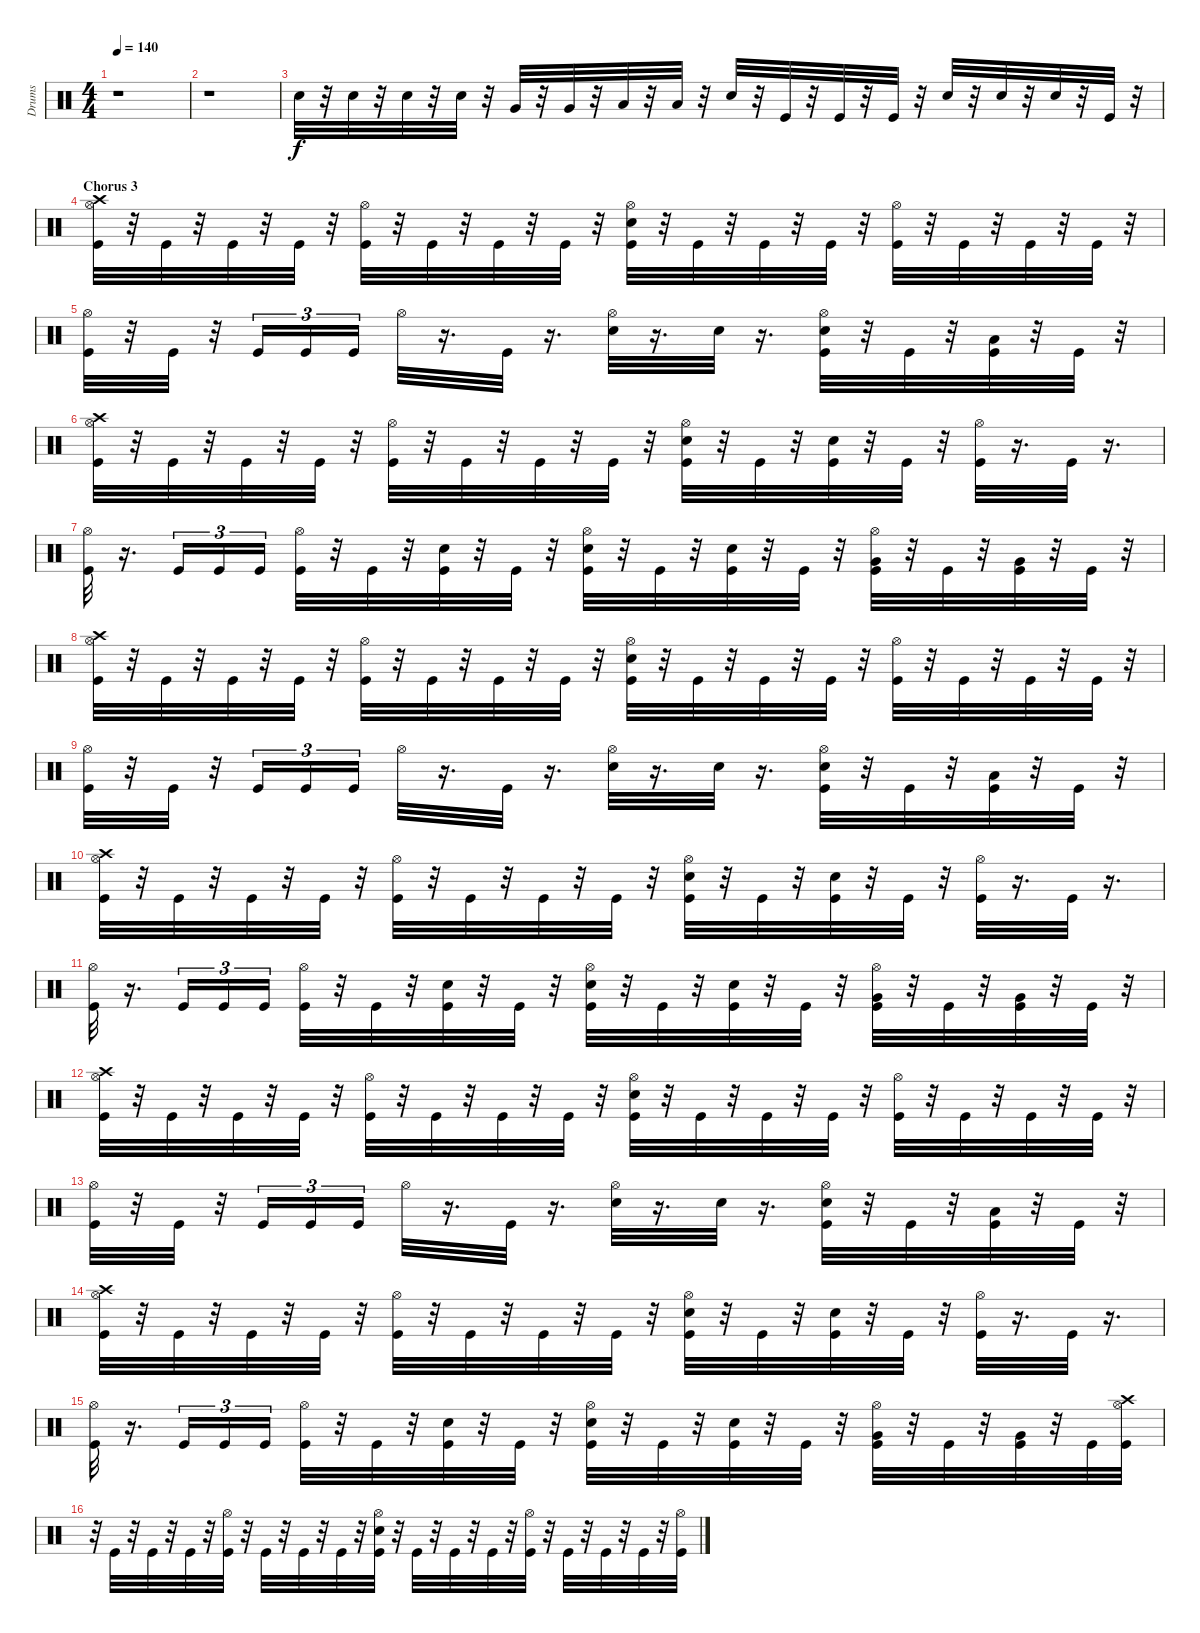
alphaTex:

\track ("Drums" "Drums") {instrument percussion}
\staff {score}
\articulation defaults
\ts (4 4)
\tempo 140
\clef neutral
\ks c
r.1{dy f} |
r.1 |
"Electric Snare (hit)".32 r.32 "Electric Snare (hit)".32 r.32 "Electric Snare (hit)".32 r.32 "Electric Snare (hit)".32 r.32 "Very Low Tom (hit)".32 r.32 "Very Low Tom (hit)".32 r.32 "Low Floor Tom (hit)".32 r.32 "Low Floor Tom (hit)".32 r.32 "Electric Snare (hit)".32 r.32 "Kick (hit)".32 r.32 "Kick (hit)".32 r.32 "Kick (hit)".32 r.32 "Electric Snare (hit)".32 r.32 "Electric Snare (hit)".32 r.32 "Electric Snare (hit)".32 r.32 "Kick (hit)".32 r.32 |
\section ("" "Chorus 3")
("Hi-Hat (open)" "Crash high (hit)" "Kick (hit)").32 r.32 "Kick (hit)".32 r.32 "Kick (hit)".32 r.32 "Kick (hit)".32 r.32 ("Hi-Hat (open)" "Kick (hit)").32 r.32 "Kick (hit)".32 r.32 "Kick (hit)".32 r.32 "Kick (hit)".32 r.32 ("Kick (hit)" "Hi-Hat (open)" "Electric Snare (hit)").32 r.32 "Kick (hit)".32 r.32 "Kick (hit)".32 r.32 "Kick (hit)".32 r.32 ("Kick (hit)" "Hi-Hat (open)").32 r.32 "Kick (hit)".32 r.32 "Kick (hit)".32 r.32 "Kick (hit)".32 r.32 |
("Hi-Hat (open)" "Kick (hit)").32 r.32 "Kick (hit)".32 r.32 "Kick (hit)".16{tu (3 2)} "Kick (hit)".16{tu (3 2)} "Kick (hit)".16{tu (3 2)} "Hi-Hat (open)".32 r.16{d} "Kick (hit)".32 r.16{d} ("Hi-Hat (open)" "Electric Snare (hit)").32 r.16{d} "Electric Snare (hit)".32 r.16{d} ("Electric Snare (hit)" "Hi-Hat (open)" "Kick (hit)").32 r.32 "Kick (hit)".32 r.32 ("Low Floor Tom (hit)" "Kick (hit)").32 r.32 "Kick (hit)".32 r.32 |
("Crash high (hit)" "Hi-Hat (open)" "Kick (hit)").32 r.32 "Kick (hit)".32 r.32 "Kick (hit)".32 r.32 "Kick (hit)".32 r.32 ("Kick (hit)" "Hi-Hat (open)").32 r.32 "Kick (hit)".32 r.32 "Kick (hit)".32 r.32 "Kick (hit)".32 r.32 ("Kick (hit)" "Hi-Hat (open)" "Electric Snare (hit)").32 r.32 "Kick (hit)".32 r.32 ("Electric Snare (hit)" "Kick (hit)").32 r.32 "Kick (hit)".32 r.32 ("Hi-Hat (open)" "Kick (hit)").32 r.16{d} "Kick (hit)".32 r.16{d} |
("Hi-Hat (open)" "Kick (hit)").32 r.16{d} "Kick (hit)".16{tu (3 2)} "Kick (hit)".16{tu (3 2)} "Kick (hit)".16{tu (3 2)} ("Kick (hit)" "Hi-Hat (open)").32 r.32 "Kick (hit)".32 r.32 ("Kick (hit)" "Electric Snare (hit)").32 r.32 "Kick (hit)".32 r.32 ("Hi-Hat (open)" "Electric Snare (hit)" "Kick (hit)").32 r.32 "Kick (hit)".32 r.32 ("Kick (hit)" "Electric Snare (hit)").32 r.32 "Kick (hit)".32 r.32 ("Kick (hit)" "Hi-Hat (open)" "Very Low Tom (hit)").32 r.32 "Kick (hit)".32 r.32 ("Kick (hit)" "Very Low Tom (hit)").32 r.32 "Kick (hit)".32 r.32 |
("Hi-Hat (open)" "Crash high (hit)" "Kick (hit)").32 r.32 "Kick (hit)".32 r.32 "Kick (hit)".32 r.32 "Kick (hit)".32 r.32 ("Hi-Hat (open)" "Kick (hit)").32 r.32 "Kick (hit)".32 r.32 "Kick (hit)".32 r.32 "Kick (hit)".32 r.32 ("Kick (hit)" "Hi-Hat (open)" "Electric Snare (hit)").32 r.32 "Kick (hit)".32 r.32 "Kick (hit)".32 r.32 "Kick (hit)".32 r.32 ("Kick (hit)" "Hi-Hat (open)").32 r.32 "Kick (hit)".32 r.32 "Kick (hit)".32 r.32 "Kick (hit)".32 r.32 |
("Hi-Hat (open)" "Kick (hit)").32 r.32 "Kick (hit)".32 r.32 "Kick (hit)".16{tu (3 2)} "Kick (hit)".16{tu (3 2)} "Kick (hit)".16{tu (3 2)} "Hi-Hat (open)".32 r.16{d} "Kick (hit)".32 r.16{d} ("Hi-Hat (open)" "Electric Snare (hit)").32 r.16{d} "Electric Snare (hit)".32 r.16{d} ("Electric Snare (hit)" "Hi-Hat (open)" "Kick (hit)").32 r.32 "Kick (hit)".32 r.32 ("Low Floor Tom (hit)" "Kick (hit)").32 r.32 "Kick (hit)".32 r.32 |
("Crash high (hit)" "Hi-Hat (open)" "Kick (hit)").32 r.32 "Kick (hit)".32 r.32 "Kick (hit)".32 r.32 "Kick (hit)".32 r.32 ("Kick (hit)" "Hi-Hat (open)").32 r.32 "Kick (hit)".32 r.32 "Kick (hit)".32 r.32 "Kick (hit)".32 r.32 ("Kick (hit)" "Hi-Hat (open)" "Electric Snare (hit)").32 r.32 "Kick (hit)".32 r.32 ("Electric Snare (hit)" "Kick (hit)").32 r.32 "Kick (hit)".32 r.32 ("Hi-Hat (open)" "Kick (hit)").32 r.16{d} "Kick (hit)".32 r.16{d} |
("Hi-Hat (open)" "Kick (hit)").32 r.16{d} "Kick (hit)".16{tu (3 2)} "Kick (hit)".16{tu (3 2)} "Kick (hit)".16{tu (3 2)} ("Kick (hit)" "Hi-Hat (open)").32 r.32 "Kick (hit)".32 r.32 ("Kick (hit)" "Electric Snare (hit)").32 r.32 "Kick (hit)".32 r.32 ("Hi-Hat (open)" "Electric Snare (hit)" "Kick (hit)").32 r.32 "Kick (hit)".32 r.32 ("Kick (hit)" "Electric Snare (hit)").32 r.32 "Kick (hit)".32 r.32 ("Kick (hit)" "Hi-Hat (open)" "Very Low Tom (hit)").32 r.32 "Kick (hit)".32 r.32 ("Kick (hit)" "Very Low Tom (hit)").32 r.32 "Kick (hit)".32 r.32 |
("Hi-Hat (open)" "Crash high (hit)" "Kick (hit)").32 r.32 "Kick (hit)".32 r.32 "Kick (hit)".32 r.32 "Kick (hit)".32 r.32 ("Hi-Hat (open)" "Kick (hit)").32 r.32 "Kick (hit)".32 r.32 "Kick (hit)".32 r.32 "Kick (hit)".32 r.32 ("Kick (hit)" "Hi-Hat (open)" "Electric Snare (hit)").32 r.32 "Kick (hit)".32 r.32 "Kick (hit)".32 r.32 "Kick (hit)".32 r.32 ("Kick (hit)" "Hi-Hat (open)").32 r.32 "Kick (hit)".32 r.32 "Kick (hit)".32 r.32 "Kick (hit)".32 r.32 |
("Hi-Hat (open)" "Kick (hit)").32 r.32 "Kick (hit)".32 r.32 "Kick (hit)".16{tu (3 2)} "Kick (hit)".16{tu (3 2)} "Kick (hit)".16{tu (3 2)} "Hi-Hat (open)".32 r.16{d} "Kick (hit)".32 r.16{d} ("Hi-Hat (open)" "Electric Snare (hit)").32 r.16{d} "Electric Snare (hit)".32 r.16{d} ("Electric Snare (hit)" "Hi-Hat (open)" "Kick (hit)").32 r.32 "Kick (hit)".32 r.32 ("Low Floor Tom (hit)" "Kick (hit)").32 r.32 "Kick (hit)".32 r.32 |
("Crash high (hit)" "Hi-Hat (open)" "Kick (hit)").32 r.32 "Kick (hit)".32 r.32 "Kick (hit)".32 r.32 "Kick (hit)".32 r.32 ("Kick (hit)" "Hi-Hat (open)").32 r.32 "Kick (hit)".32 r.32 "Kick (hit)".32 r.32 "Kick (hit)".32 r.32 ("Kick (hit)" "Hi-Hat (open)" "Electric Snare (hit)").32 r.32 "Kick (hit)".32 r.32 ("Electric Snare (hit)" "Kick (hit)").32 r.32 "Kick (hit)".32 r.32 ("Hi-Hat (open)" "Kick (hit)").32 r.16{d} "Kick (hit)".32 r.16{d} |
("Hi-Hat (open)" "Kick (hit)").32 r.16{d} "Kick (hit)".16{tu (3 2)} "Kick (hit)".16{tu (3 2)} "Kick (hit)".16{tu (3 2)} ("Kick (hit)" "Hi-Hat (open)").32 r.32 "Kick (hit)".32 r.32 ("Kick (hit)" "Electric Snare (hit)").32 r.32 "Kick (hit)".32 r.32 ("Hi-Hat (open)" "Electric Snare (hit)" "Kick (hit)").32 r.32 "Kick (hit)".32 r.32 ("Kick (hit)" "Electric Snare (hit)").32 r.32 "Kick (hit)".32 r.32 ("Kick (hit)" "Hi-Hat (open)" "Very Low Tom (hit)").32 r.32 "Kick (hit)".32 r.32 ("Kick (hit)" "Very Low Tom (hit)").32 r.32 "Kick (hit)".32 ("Hi-Hat (open)" "Crash high (hit)" "Kick (hit)").32 |
r.32 "Kick (hit)".32 r.32 "Kick (hit)".32 r.32 "Kick (hit)".32 r.32 ("Hi-Hat (open)" "Kick (hit)").32 r.32 "Kick (hit)".32 r.32 "Kick (hit)".32 r.32 "Kick (hit)".32 r.32 ("Kick (hit)" "Hi-Hat (open)" "Electric Snare (hit)").32 r.32 "Kick (hit)".32 r.32 "Kick (hit)".32 r.32 "Kick (hit)".32 r.32 ("Kick (hit)" "Hi-Hat (open)").32 r.32 "Kick (hit)".32 r.32 "Kick (hit)".32 r.32 "Kick (hit)".32 r.32 ("Hi-Hat (open)" "Kick (hit)").32
